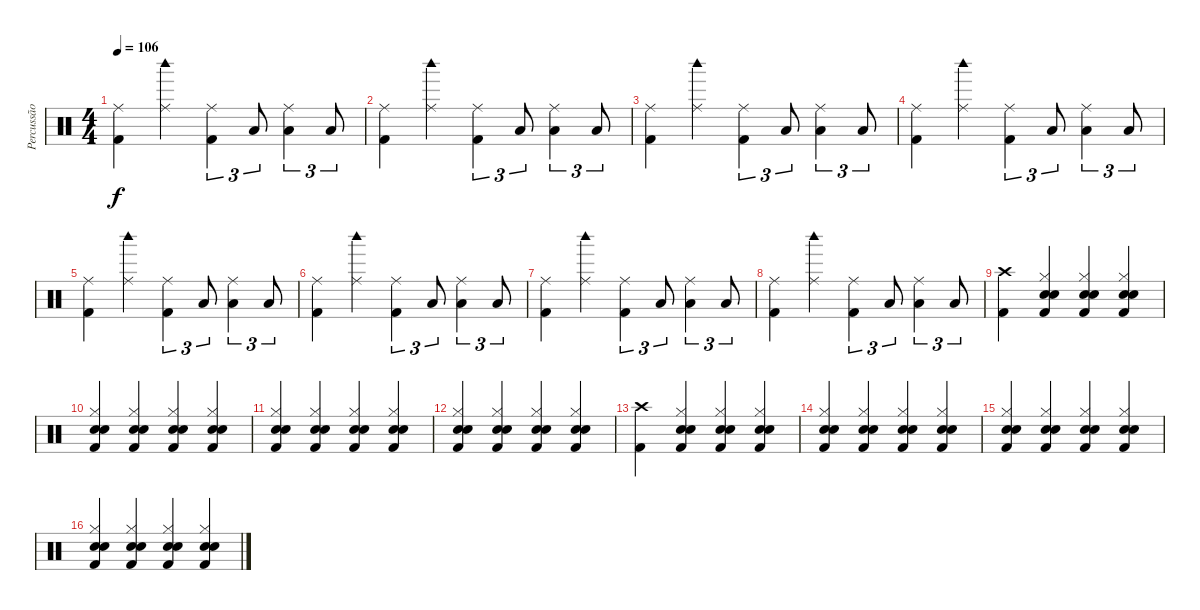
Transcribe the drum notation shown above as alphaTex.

\track ("Percussão" "Percussão") {instrument percussion}
\staff {score}
\articulation defaults
\ts (4 4)
\tempo 106
\clef neutral
\ks c
("Ride (middle)" "Kick (hit) 2").4{dy f} ("Ride (middle)" "Woodblock high (hit)").4 ("Ride (middle)" "Kick (hit) 2").4{tu (3 2)} "Low Floor Tom (hit)".8{tu (3 2)} ("Ride (middle)" "Low Floor Tom (hit)").4{tu (3 2)} "Low Floor Tom (hit)".8{tu (3 2)} |
("Ride (middle)" "Kick (hit) 2").4 ("Ride (middle)" "Woodblock high (hit)").4 ("Ride (middle)" "Kick (hit) 2").4{tu (3 2)} "Low Floor Tom (hit)".8{tu (3 2)} ("Ride (middle)" "Low Floor Tom (hit)").4{tu (3 2)} "Low Floor Tom (hit)".8{tu (3 2)} |
("Ride (middle)" "Kick (hit) 2").4 ("Ride (middle)" "Woodblock high (hit)").4 ("Ride (middle)" "Kick (hit) 2").4{tu (3 2)} "Low Floor Tom (hit)".8{tu (3 2)} ("Ride (middle)" "Low Floor Tom (hit)").4{tu (3 2)} "Low Floor Tom (hit)".8{tu (3 2)} |
("Ride (middle)" "Kick (hit) 2").4 ("Ride (middle)" "Woodblock high (hit)").4 ("Ride (middle)" "Kick (hit) 2").4{tu (3 2)} "Low Floor Tom (hit)".8{tu (3 2)} ("Ride (middle)" "Low Floor Tom (hit)").4{tu (3 2)} "Low Floor Tom (hit)".8{tu (3 2)} |
("Ride (middle)" "Kick (hit) 2").4 ("Ride (middle)" "Woodblock high (hit)").4 ("Ride (middle)" "Kick (hit) 2").4{tu (3 2)} "Low Floor Tom (hit)".8{tu (3 2)} ("Ride (middle)" "Low Floor Tom (hit)").4{tu (3 2)} "Low Floor Tom (hit)".8{tu (3 2)} |
("Ride (middle)" "Kick (hit) 2").4 ("Ride (middle)" "Woodblock high (hit)").4 ("Ride (middle)" "Kick (hit) 2").4{tu (3 2)} "Low Floor Tom (hit)".8{tu (3 2)} ("Ride (middle)" "Low Floor Tom (hit)").4{tu (3 2)} "Low Floor Tom (hit)".8{tu (3 2)} |
("Ride (middle)" "Kick (hit) 2").4 ("Ride (middle)" "Woodblock high (hit)").4 ("Ride (middle)" "Kick (hit) 2").4{tu (3 2)} "Low Floor Tom (hit)".8{tu (3 2)} ("Ride (middle)" "Low Floor Tom (hit)").4{tu (3 2)} "Low Floor Tom (hit)".8{tu (3 2)} |
("Ride (middle)" "Kick (hit) 2").4 ("Ride (middle)" "Woodblock high (hit)").4 ("Ride (middle)" "Kick (hit) 2").4{tu (3 2)} "Low Floor Tom (hit)".8{tu (3 2)} ("Ride (middle)" "Low Floor Tom (hit)").4{tu (3 2)} "Low Floor Tom (hit)".8{tu (3 2)} |
("Crash high (hit)" "Kick (hit) 2").4 ("Hi-Hat (closed)" "Snare (hit) 2" "Snare (hit) 2" "Kick (hit) 2").4 ("Hi-Hat (closed)" "Snare (hit) 2" "Snare (hit) 2" "Kick (hit) 2").4 ("Hi-Hat (closed)" "Snare (hit) 2" "Snare (hit) 2" "Kick (hit) 2").4 |
("Hi-Hat (closed)" "Snare (hit) 2" "Snare (hit) 2" "Kick (hit) 2").4 ("Hi-Hat (closed)" "Snare (hit) 2" "Snare (hit) 2" "Kick (hit) 2").4 ("Hi-Hat (closed)" "Snare (hit) 2" "Snare (hit) 2" "Kick (hit) 2").4 ("Hi-Hat (closed)" "Snare (hit) 2" "Snare (hit) 2" "Kick (hit) 2").4 |
("Hi-Hat (closed)" "Snare (hit) 2" "Snare (hit) 2" "Kick (hit) 2").4 ("Hi-Hat (closed)" "Snare (hit) 2" "Snare (hit) 2" "Kick (hit) 2").4 ("Hi-Hat (closed)" "Snare (hit) 2" "Snare (hit) 2" "Kick (hit) 2").4 ("Hi-Hat (closed)" "Snare (hit) 2" "Snare (hit) 2" "Kick (hit) 2").4 |
("Hi-Hat (closed)" "Snare (hit) 2" "Snare (hit) 2" "Kick (hit) 2").4 ("Hi-Hat (closed)" "Snare (hit) 2" "Snare (hit) 2" "Kick (hit) 2").4 ("Hi-Hat (closed)" "Snare (hit) 2" "Snare (hit) 2" "Kick (hit) 2").4 ("Hi-Hat (closed)" "Snare (hit) 2" "Snare (hit) 2" "Kick (hit) 2").4 |
("Crash high (hit)" "Kick (hit) 2").4 ("Hi-Hat (closed)" "Snare (hit) 2" "Snare (hit) 2" "Kick (hit) 2").4 ("Hi-Hat (closed)" "Snare (hit) 2" "Snare (hit) 2" "Kick (hit) 2").4 ("Hi-Hat (closed)" "Snare (hit) 2" "Snare (hit) 2" "Kick (hit) 2").4 |
("Hi-Hat (closed)" "Snare (hit) 2" "Snare (hit) 2" "Kick (hit) 2").4 ("Hi-Hat (closed)" "Snare (hit) 2" "Snare (hit) 2" "Kick (hit) 2").4 ("Hi-Hat (closed)" "Snare (hit) 2" "Snare (hit) 2" "Kick (hit) 2").4 ("Hi-Hat (closed)" "Snare (hit) 2" "Snare (hit) 2" "Kick (hit) 2").4 |
("Hi-Hat (closed)" "Snare (hit) 2" "Snare (hit) 2" "Kick (hit) 2").4 ("Hi-Hat (closed)" "Snare (hit) 2" "Snare (hit) 2" "Kick (hit) 2").4 ("Hi-Hat (closed)" "Snare (hit) 2" "Snare (hit) 2" "Kick (hit) 2").4 ("Hi-Hat (closed)" "Snare (hit) 2" "Snare (hit) 2" "Kick (hit) 2").4 |
("Hi-Hat (closed)" "Snare (hit) 2" "Snare (hit) 2" "Kick (hit) 2").4 ("Hi-Hat (closed)" "Snare (hit) 2" "Snare (hit) 2" "Kick (hit) 2").4 ("Hi-Hat (closed)" "Snare (hit) 2" "Snare (hit) 2" "Kick (hit) 2").4 ("Hi-Hat (closed)" "Snare (hit) 2" "Snare (hit) 2" "Kick (hit) 2").4
